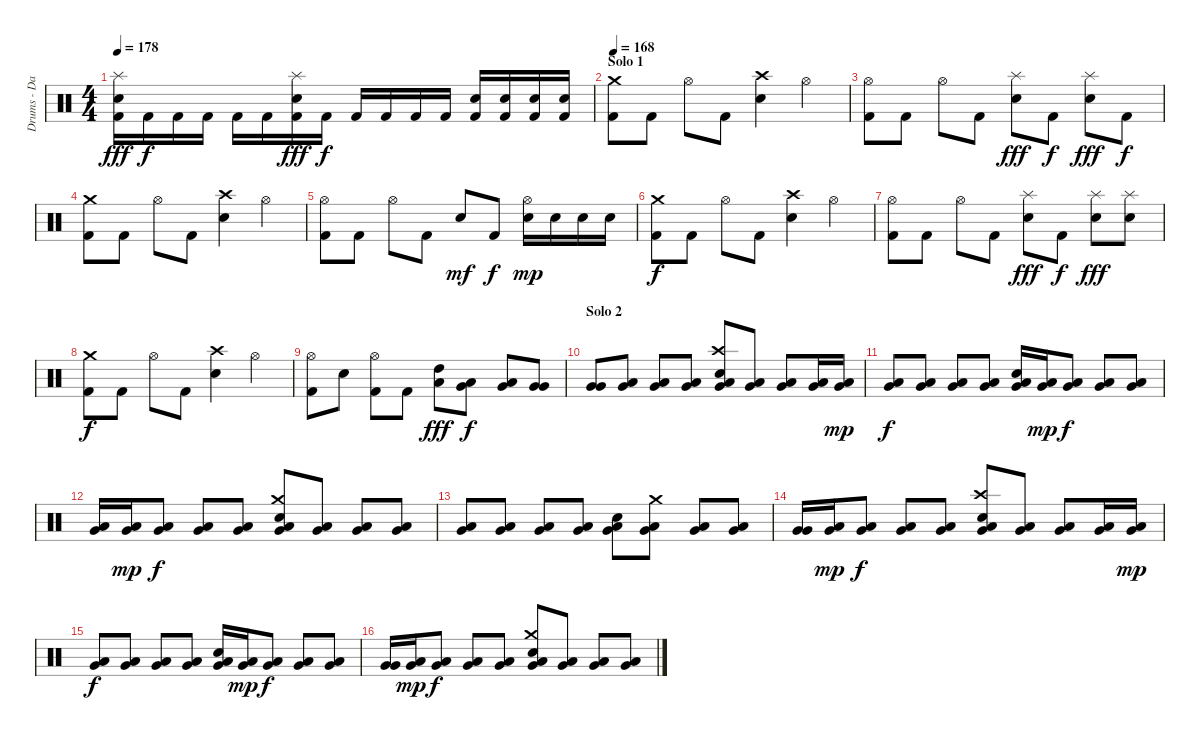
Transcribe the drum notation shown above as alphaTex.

\track ("Drums - Daniel Zimmermann" "Drums - Da") {instrument percussion}
\staff {score}
\articulation defaults
\ts (4 4)
\tempo 178
\clef neutral
\ks c
("Kick (hit) 2" "Electric Snare (hit)" "Splash (hit)").16{dy fff} "Kick (hit) 2".16{dy f} "Kick (hit) 2".16 "Kick (hit) 2".16 "Kick (hit) 2".16 "Kick (hit) 2".16 ("Kick (hit) 2" "Electric Snare (hit)" "Splash (hit)").16{dy fff} "Kick (hit) 2".16{dy f} "Kick (hit) 2".16 "Kick (hit) 2".16 "Kick (hit) 2".16 "Kick (hit) 2".16 ("Kick (hit) 2" "Electric Snare (hit)").16 ("Kick (hit) 2" "Electric Snare (hit)").16 ("Kick (hit) 2" "Electric Snare (hit)").16 ("Kick (hit) 2" "Electric Snare (hit)").16 |
\section ("" "Solo 1")
\tempo 168
("Kick (hit) 2" "Crash medium (hit)").8 "Kick (hit) 2".8 "Hi-Hat (open)".8 "Kick (hit) 2".8 ("Electric Snare (hit)" "Crash high (hit)").4 "Hi-Hat (open)".4 |
("Kick (hit) 2" "Hi-Hat (open)").8 "Kick (hit) 2".8 "Hi-Hat (open)".8 "Kick (hit) 2".8 ("Electric Snare (hit)" "Splash (hit)").8{dy fff} "Kick (hit) 2".8{dy f} ("Electric Snare (hit)" "Splash (hit)").8{dy fff} "Kick (hit) 2".8{dy f} |
("Kick (hit) 2" "Crash medium (hit)").8 "Kick (hit) 2".8 "Hi-Hat (open)".8 "Kick (hit) 2".8 ("Electric Snare (hit)" "Crash high (hit)").4 "Hi-Hat (open)".4 |
("Kick (hit) 2" "Hi-Hat (open)").8 "Kick (hit) 2".8 "Hi-Hat (open)".8 "Kick (hit) 2".8 "Electric Snare (hit)".8{dy mf} "Kick (hit) 2".8{dy f} ("Electric Snare (hit)" "Hi-Hat (open)").16{dy mp} "Electric Snare (hit)".16 "Electric Snare (hit)".16 "Electric Snare (hit)".16 |
("Kick (hit) 2" "Crash medium (hit)").8{dy f} "Kick (hit) 2".8 "Hi-Hat (open)".8 "Kick (hit) 2".8 ("Electric Snare (hit)" "Crash high (hit)").4 "Hi-Hat (open)".4 |
("Kick (hit) 2" "Hi-Hat (open)").8 "Kick (hit) 2".8 "Hi-Hat (open)".8 "Kick (hit) 2".8 ("Electric Snare (hit)" "Splash (hit)").8{dy fff} "Kick (hit) 2".8{dy f} ("Electric Snare (hit)" "Splash (hit)").8{dy fff} ("Electric Snare (hit)" "Splash (hit)").8 |
("Kick (hit) 2" "Crash medium (hit)").8{dy f} "Kick (hit) 2".8 "Hi-Hat (open)".8 "Kick (hit) 2".8 ("Electric Snare (hit)" "Crash high (hit)").4 "Hi-Hat (open)".4 |
("Kick (hit) 2" "Hi-Hat (open)").8 "Electric Snare (hit)".8 ("Kick (hit) 2" "Hi-Hat (open)").8 "Kick (hit) 2".8 ("High Tom (hit)" "Low Tom (hit)").8{dy fff} ("Low Tom (hit)" "Very Low Tom (hit)").8{dy f} ("Low Tom (hit)" "Very Low Tom (hit)").8 ("Very Low Tom (hit)" "Very Low Tom (hit)").8 |
\section ("" "Solo 2")
("Very Low Tom (hit)" "Very Low Tom (hit)").8 ("Very Low Tom (hit)" "Low Floor Tom (hit)").8 ("Very Low Tom (hit)" "Low Floor Tom (hit)").8 ("Very Low Tom (hit)" "Low Floor Tom (hit)").8 ("Very Low Tom (hit)" "Low Floor Tom (hit)" "Electric Snare (hit)" "Crash high (hit)").8 ("Very Low Tom (hit)" "Low Floor Tom (hit)").8 ("Very Low Tom (hit)" "Low Floor Tom (hit)").8 ("Very Low Tom (hit)" "Low Floor Tom (hit)").16 ("Very Low Tom (hit)" "Low Floor Tom (hit)").16{dy mp} |
("Very Low Tom (hit)" "Low Floor Tom (hit)").8{dy f} ("Very Low Tom (hit)" "Low Floor Tom (hit)").8 ("Very Low Tom (hit)" "Low Floor Tom (hit)").8 ("Very Low Tom (hit)" "Low Floor Tom (hit)").8 ("Very Low Tom (hit)" "Low Floor Tom (hit)" "Electric Snare (hit)").16 ("Very Low Tom (hit)" "Low Floor Tom (hit)").16{dy mp} ("Very Low Tom (hit)" "Low Floor Tom (hit)").8{dy f} ("Very Low Tom (hit)" "Low Floor Tom (hit)").8 ("Very Low Tom (hit)" "Low Floor Tom (hit)").8 |
("Very Low Tom (hit)" "Low Floor Tom (hit)").16 ("Very Low Tom (hit)" "Low Floor Tom (hit)").16{dy mp} ("Very Low Tom (hit)" "Low Floor Tom (hit)").8{dy f} ("Very Low Tom (hit)" "Low Floor Tom (hit)").8 ("Very Low Tom (hit)" "Low Floor Tom (hit)").8 ("Very Low Tom (hit)" "Low Floor Tom (hit)" "Electric Snare (hit)" "Crash medium (hit)").8 ("Very Low Tom (hit)" "Low Floor Tom (hit)").8 ("Very Low Tom (hit)" "Low Floor Tom (hit)").8 ("Very Low Tom (hit)" "Low Floor Tom (hit)").8 |
("Very Low Tom (hit)" "Low Floor Tom (hit)").8 ("Very Low Tom (hit)" "Low Floor Tom (hit)").8 ("Very Low Tom (hit)" "Low Floor Tom (hit)").8 ("Very Low Tom (hit)" "Low Floor Tom (hit)").8 ("Very Low Tom (hit)" "Low Floor Tom (hit)" "Electric Snare (hit)").8 ("Very Low Tom (hit)" "Low Floor Tom (hit)" "Crash medium (hit)").8 ("Very Low Tom (hit)" "Low Floor Tom (hit)").8 ("Very Low Tom (hit)" "Low Floor Tom (hit)").8 |
("Very Low Tom (hit)" "Very Low Tom (hit)").16 ("Very Low Tom (hit)" "Low Floor Tom (hit)").16{dy mp} ("Very Low Tom (hit)" "Low Floor Tom (hit)").8{dy f} ("Very Low Tom (hit)" "Low Floor Tom (hit)").8 ("Very Low Tom (hit)" "Low Floor Tom (hit)").8 ("Very Low Tom (hit)" "Low Floor Tom (hit)" "Electric Snare (hit)" "Crash high (hit)").8 ("Very Low Tom (hit)" "Low Floor Tom (hit)").8 ("Very Low Tom (hit)" "Low Floor Tom (hit)").8 ("Very Low Tom (hit)" "Low Floor Tom (hit)").16 ("Very Low Tom (hit)" "Low Floor Tom (hit)").16{dy mp} |
("Very Low Tom (hit)" "Low Floor Tom (hit)").8{dy f} ("Very Low Tom (hit)" "Low Floor Tom (hit)").8 ("Very Low Tom (hit)" "Low Floor Tom (hit)").8 ("Very Low Tom (hit)" "Low Floor Tom (hit)").8 ("Very Low Tom (hit)" "Low Floor Tom (hit)" "Electric Snare (hit)").16 ("Very Low Tom (hit)" "Low Floor Tom (hit)").16{dy mp} ("Very Low Tom (hit)" "Low Floor Tom (hit)").8{dy f} ("Very Low Tom (hit)" "Low Floor Tom (hit)").8 ("Very Low Tom (hit)" "Low Floor Tom (hit)").8 |
("Very Low Tom (hit)" "Very Low Tom (hit)").16 ("Very Low Tom (hit)" "Low Floor Tom (hit)").16{dy mp} ("Very Low Tom (hit)" "Low Floor Tom (hit)").8{dy f} ("Very Low Tom (hit)" "Low Floor Tom (hit)").8 ("Very Low Tom (hit)" "Low Floor Tom (hit)").8 ("Very Low Tom (hit)" "Low Floor Tom (hit)" "Electric Snare (hit)" "Crash medium (hit)").8 ("Very Low Tom (hit)" "Low Floor Tom (hit)").8 ("Very Low Tom (hit)" "Low Floor Tom (hit)").8 ("Very Low Tom (hit)" "Low Floor Tom (hit)").8
